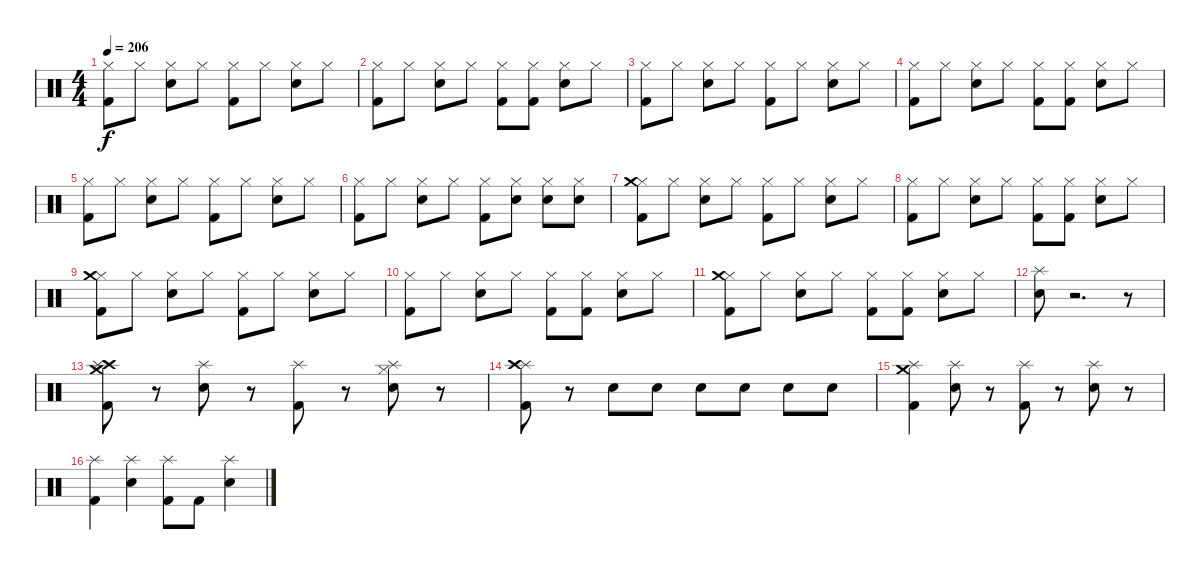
\track "" {instrument percussion}
\staff {score}
\articulation defaults
\ts (4 4)
\tempo 206
\clef neutral
\ks c
("Hi-Hat (closed)" "Kick (hit) 2").8{dy f} "Hi-Hat (closed)".8 ("Hi-Hat (closed)" "Electric Snare (hit)").8 "Hi-Hat (closed)".8 ("Hi-Hat (closed)" "Kick (hit) 2").8 "Hi-Hat (closed)".8 ("Hi-Hat (closed)" "Electric Snare (hit)").8 "Hi-Hat (closed)".8 |
("Hi-Hat (closed)" "Kick (hit) 2").8 "Hi-Hat (closed)".8 ("Hi-Hat (closed)" "Electric Snare (hit)").8 "Hi-Hat (closed)".8 ("Hi-Hat (closed)" "Kick (hit) 2").8 ("Hi-Hat (closed)" "Kick (hit) 2").8 ("Hi-Hat (closed)" "Electric Snare (hit)").8 "Hi-Hat (closed)".8 |
("Hi-Hat (closed)" "Kick (hit) 2").8 "Hi-Hat (closed)".8 ("Hi-Hat (closed)" "Electric Snare (hit)").8 "Hi-Hat (closed)".8 ("Hi-Hat (closed)" "Kick (hit) 2").8 "Hi-Hat (closed)".8 ("Hi-Hat (closed)" "Electric Snare (hit)").8 "Hi-Hat (closed)".8 |
("Hi-Hat (closed)" "Kick (hit) 2").8 "Hi-Hat (closed)".8 ("Hi-Hat (closed)" "Electric Snare (hit)").8 "Hi-Hat (closed)".8 ("Hi-Hat (closed)" "Kick (hit) 2").8 ("Hi-Hat (closed)" "Kick (hit) 2").8 ("Hi-Hat (closed)" "Electric Snare (hit)").8 "Hi-Hat (closed)".8 |
("Hi-Hat (closed)" "Kick (hit) 2").8 "Hi-Hat (closed)".8 ("Hi-Hat (closed)" "Electric Snare (hit)").8 "Hi-Hat (closed)".8 ("Hi-Hat (closed)" "Kick (hit) 2").8 "Hi-Hat (closed)".8 ("Hi-Hat (closed)" "Electric Snare (hit)").8 "Hi-Hat (closed)".8 |
("Hi-Hat (closed)" "Kick (hit) 2").8 "Hi-Hat (closed)".8 ("Hi-Hat (closed)" "Electric Snare (hit)").8 "Hi-Hat (closed)".8 ("Hi-Hat (closed)" "Kick (hit) 2").8 ("Hi-Hat (closed)" "Electric Snare (hit)").8 ("Hi-Hat (closed)" "Electric Snare (hit)").8 ("Electric Snare (hit)" "Hi-Hat (closed)").8 |
("Hi-Hat (closed)" "Crash medium (hit)" "Kick (hit) 2").8 "Hi-Hat (closed)".8 ("Hi-Hat (closed)" "Electric Snare (hit)").8 "Hi-Hat (closed)".8 ("Hi-Hat (closed)" "Kick (hit) 2").8 "Hi-Hat (closed)".8 ("Hi-Hat (closed)" "Electric Snare (hit)").8 "Hi-Hat (closed)".8 |
("Hi-Hat (closed)" "Kick (hit) 2").8 "Hi-Hat (closed)".8 ("Hi-Hat (closed)" "Electric Snare (hit)").8 "Hi-Hat (closed)".8 ("Hi-Hat (closed)" "Kick (hit) 2").8 ("Hi-Hat (closed)" "Kick (hit) 2").8 ("Hi-Hat (closed)" "Electric Snare (hit)").8 "Hi-Hat (closed)".8 |
("Hi-Hat (closed)" "Crash medium (hit)" "Kick (hit) 2").8 "Hi-Hat (closed)".8 ("Hi-Hat (closed)" "Electric Snare (hit)").8 "Hi-Hat (closed)".8 ("Hi-Hat (closed)" "Kick (hit) 2").8 "Hi-Hat (closed)".8 ("Hi-Hat (closed)" "Electric Snare (hit)").8 "Hi-Hat (closed)".8 |
("Hi-Hat (closed)" "Kick (hit) 2").8 "Hi-Hat (closed)".8 ("Hi-Hat (closed)" "Electric Snare (hit)").8 "Hi-Hat (closed)".8 ("Hi-Hat (closed)" "Kick (hit) 2").8 ("Hi-Hat (closed)" "Kick (hit) 2").8 ("Hi-Hat (closed)" "Electric Snare (hit)").8 "Hi-Hat (closed)".8 |
("Hi-Hat (closed)" "Crash medium (hit)" "Kick (hit) 2").8 "Hi-Hat (closed)".8 ("Hi-Hat (closed)" "Electric Snare (hit)").8 "Hi-Hat (closed)".8 ("Hi-Hat (closed)" "Kick (hit) 2").8 ("Kick (hit) 2" "Hi-Hat (closed)").8 ("Hi-Hat (closed)" "Electric Snare (hit)").8 "Hi-Hat (closed)".8 |
("Electric Snare (hit)" "Splash (hit)").8 r.2{d} r.8 |
("Crash medium (hit)" "Crash high (hit)" "Splash (hit)" "Kick (hit) 2").8 r.8 ("Splash (hit)" "Electric Snare (hit)").8 r.8 ("Splash (hit)" "Kick (hit) 2").8 r.8 ("Splash (hit)" "Hi-Hat (closed)" "Electric Snare (hit)").8 r.8 |
("Splash (hit)" "Crash high (hit)" "Kick (hit) 2").8 r.8 "Electric Snare (hit)".8 "Electric Snare (hit)".8 "Electric Snare (hit)".8 "Electric Snare (hit)".8 "Electric Snare (hit)".8 "Electric Snare (hit)".8 |
("Splash (hit)" "Crash medium (hit)" "Kick (hit) 2").4 ("Splash (hit)" "Electric Snare (hit)").8 r.8 ("Splash (hit)" "Kick (hit) 2").8 r.8 ("Splash (hit)" "Electric Snare (hit)").8 r.8 |
("Splash (hit)" "Kick (hit) 2").4 ("Splash (hit)" "Electric Snare (hit)").4 ("Splash (hit)" "Kick (hit) 2").8 "Kick (hit) 2".8 ("Splash (hit)" "Electric Snare (hit)").4
